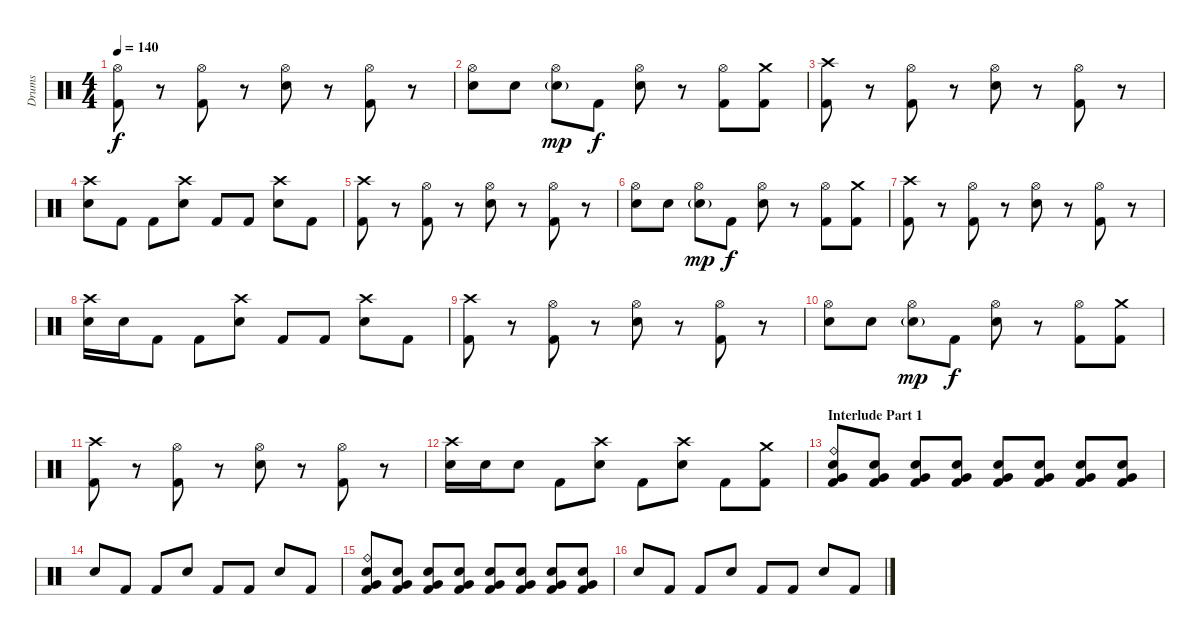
\track ("Drums" "Drums") {instrument percussion}
\staff {score}
\articulation defaults
\ts (4 4)
\tempo 140
\clef neutral
\ks c
("Hi-Hat (open)" "Kick (hit) 2").8{dy f} r.8 ("Hi-Hat (open)" "Kick (hit) 2").8 r.8 ("Hi-Hat (open)" "Snare (hit) 2").8 r.8 ("Hi-Hat (open)" "Kick (hit) 2").8 r.8 |
("Hi-Hat (open)" "Snare (hit) 2").8 "Snare (hit) 2".8 ("Hi-Hat (open)" "Snare (hit) 2"{g}).8{dy mp} "Kick (hit) 2".8{dy f} ("Hi-Hat (open)" "Snare (hit) 2").8 r.8 ("Hi-Hat (open)" "Kick (hit) 2").8 ("Crash medium (hit)" "Kick (hit) 2").8 |
("Crash high (hit)" "Kick (hit) 2").8 r.8 ("Hi-Hat (open)" "Kick (hit) 2").8 r.8 ("Hi-Hat (open)" "Snare (hit) 2").8 r.8 ("Hi-Hat (open)" "Kick (hit) 2").8 r.8 |
("Crash high (hit)" "Snare (hit) 2").8 "Kick (hit) 2".8 "Kick (hit) 2".8 ("Crash high (hit)" "Snare (hit) 2").8 "Kick (hit) 2".8 "Kick (hit) 2".8 ("Crash high (hit)" "Snare (hit) 2").8 "Kick (hit) 2".8 |
("Crash high (hit)" "Kick (hit) 2").8 r.8 ("Hi-Hat (open)" "Kick (hit) 2").8 r.8 ("Hi-Hat (open)" "Snare (hit) 2").8 r.8 ("Hi-Hat (open)" "Kick (hit) 2").8 r.8 |
("Hi-Hat (open)" "Snare (hit) 2").8 "Snare (hit) 2".8 ("Hi-Hat (open)" "Snare (hit) 2"{g}).8{dy mp} "Kick (hit) 2".8{dy f} ("Hi-Hat (open)" "Snare (hit) 2").8 r.8 ("Hi-Hat (open)" "Kick (hit) 2").8 ("Crash medium (hit)" "Kick (hit) 2").8 |
("Crash high (hit)" "Kick (hit) 2").8 r.8 ("Hi-Hat (open)" "Kick (hit) 2").8 r.8 ("Hi-Hat (open)" "Snare (hit) 2").8 r.8 ("Hi-Hat (open)" "Kick (hit) 2").8 r.8 |
("Crash high (hit)" "Snare (hit) 2").16 "Snare (hit) 2".16 "Kick (hit) 2".8 "Kick (hit) 2".8 ("Crash high (hit)" "Snare (hit) 2").8 "Kick (hit) 2".8 "Kick (hit) 2".8 ("Crash high (hit)" "Snare (hit) 2").8 "Kick (hit) 2".8 |
("Crash high (hit)" "Kick (hit) 2").8 r.8 ("Hi-Hat (open)" "Kick (hit) 2").8 r.8 ("Hi-Hat (open)" "Snare (hit) 2").8 r.8 ("Hi-Hat (open)" "Kick (hit) 2").8 r.8 |
("Hi-Hat (open)" "Snare (hit) 2").8 "Snare (hit) 2".8 ("Hi-Hat (open)" "Snare (hit) 2"{g}).8{dy mp} "Kick (hit) 2".8{dy f} ("Hi-Hat (open)" "Snare (hit) 2").8 r.8 ("Hi-Hat (open)" "Kick (hit) 2").8 ("Crash medium (hit)" "Kick (hit) 2").8 |
("Crash high (hit)" "Kick (hit) 2").8 r.8 ("Hi-Hat (open)" "Kick (hit) 2").8 r.8 ("Hi-Hat (open)" "Snare (hit) 2").8 r.8 ("Hi-Hat (open)" "Kick (hit) 2").8 r.8 |
("Crash high (hit)" "Snare (hit) 2").16 "Snare (hit) 2".16 "Snare (hit) 2".8 "Kick (hit) 2".8 ("Crash high (hit)" "Snare (hit) 2").8 "Kick (hit) 2".8 ("Crash high (hit)" "Snare (hit) 2").8 "Kick (hit) 2".8 ("Crash medium (hit)" "Kick (hit) 2").8 |
\section ("" "Interlude Part 1")
("Ride (bell)" "Snare (hit) 2" "Very Low Tom (hit)" "Kick (hit) 2").8 ("Snare (hit) 2" "Very Low Tom (hit)" "Kick (hit) 2").8 ("Snare (hit) 2" "Very Low Tom (hit)" "Kick (hit) 2").8 ("Snare (hit) 2" "Very Low Tom (hit)" "Kick (hit) 2").8 ("Snare (hit) 2" "Very Low Tom (hit)" "Kick (hit) 2").8 ("Snare (hit) 2" "Very Low Tom (hit)" "Kick (hit) 2").8 ("Snare (hit) 2" "Very Low Tom (hit)" "Kick (hit) 2").8 ("Snare (hit) 2" "Very Low Tom (hit)" "Kick (hit) 2").8 |
"Snare (hit) 2".8 "Kick (hit) 2".8 "Kick (hit) 2".8 "Snare (hit) 2".8 "Kick (hit) 2".8 "Kick (hit) 2".8 "Snare (hit) 2".8 "Kick (hit) 2".8 |
("Ride (bell)" "Snare (hit) 2" "Very Low Tom (hit)" "Kick (hit) 2").8 ("Snare (hit) 2" "Very Low Tom (hit)" "Kick (hit) 2").8 ("Snare (hit) 2" "Very Low Tom (hit)" "Kick (hit) 2").8 ("Snare (hit) 2" "Very Low Tom (hit)" "Kick (hit) 2").8 ("Snare (hit) 2" "Very Low Tom (hit)" "Kick (hit) 2").8 ("Snare (hit) 2" "Very Low Tom (hit)" "Kick (hit) 2").8 ("Snare (hit) 2" "Very Low Tom (hit)" "Kick (hit) 2").8 ("Snare (hit) 2" "Very Low Tom (hit)" "Kick (hit) 2").8 |
"Snare (hit) 2".8 "Kick (hit) 2".8 "Kick (hit) 2".8 "Snare (hit) 2".8 "Kick (hit) 2".8 "Kick (hit) 2".8 "Snare (hit) 2".8 "Kick (hit) 2".8
